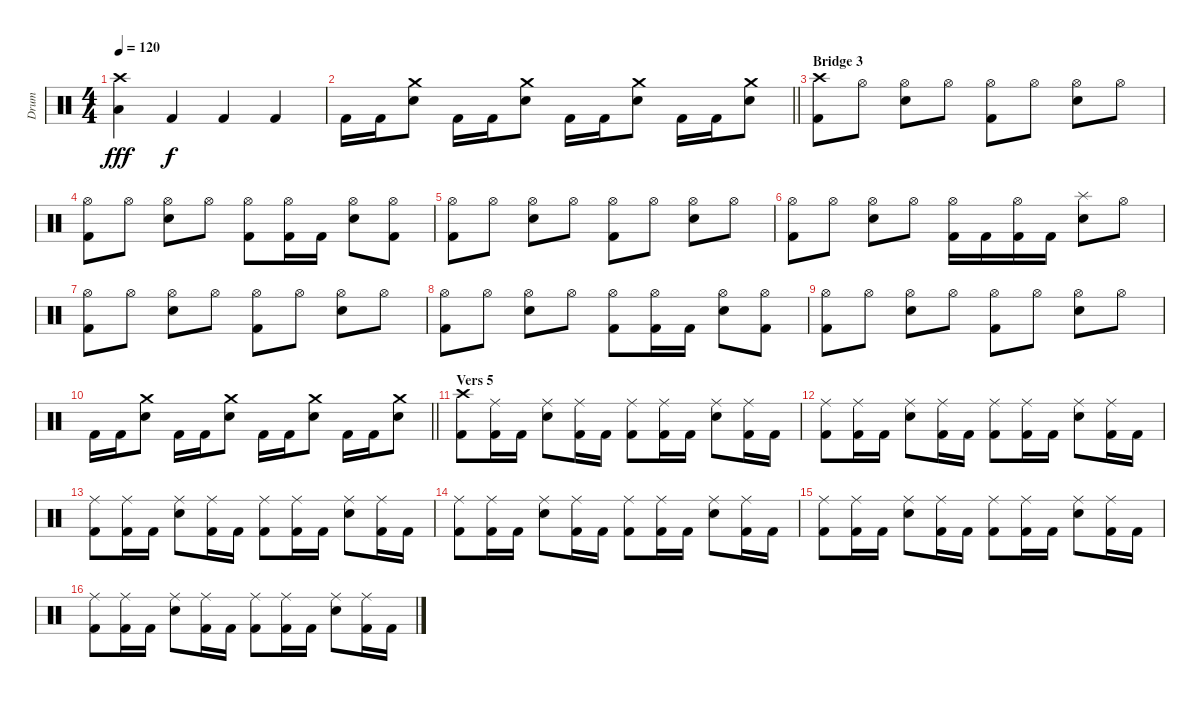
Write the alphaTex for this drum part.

\track ("Drum" "Drum") {instrument percussion}
\staff {score}
\articulation defaults
\ts (4 4)
\tempo 120
\clef neutral
\ks c
("Crash high (hit)" "Low Floor Tom (hit)").4{dy fff} "Kick (hit) 2".4{dy f} "Kick (hit) 2".4 "Kick (hit) 2".4 |
\barLineRight lightlight "Kick (hit) 2".16 "Kick (hit) 2".16
("Crash medium (hit)" "Electric Snare (hit)").8 "Kick (hit) 2".16 "Kick (hit) 2".16 ("Crash medium (hit)" "Electric Snare (hit)").8 "Kick (hit) 2".16 "Kick (hit) 2".16 ("Crash medium (hit)" "Electric Snare (hit)").8 "Kick (hit) 2".16 "Kick (hit) 2".16 ("Crash medium (hit)" "Electric Snare (hit)").8 |
\section ("" "Bridge 3")
("Crash high (hit)" "Kick (hit) 2").8 "Hi-Hat (open)".8 ("Hi-Hat (open)" "Electric Snare (hit)").8 "Hi-Hat (open)".8 ("Hi-Hat (open)" "Kick (hit) 2").8 "Hi-Hat (open)".8 ("Hi-Hat (open)" "Electric Snare (hit)").8 "Hi-Hat (open)".8 |
("Hi-Hat (open)" "Kick (hit) 2").8 "Hi-Hat (open)".8 ("Hi-Hat (open)" "Electric Snare (hit)").8 "Hi-Hat (open)".8 ("Hi-Hat (open)" "Kick (hit) 2").8 ("Hi-Hat (open)" "Kick (hit) 2").16 "Kick (hit) 2".16 ("Hi-Hat (open)" "Electric Snare (hit)").8 ("Hi-Hat (open)" "Kick (hit) 2").8 |
("Hi-Hat (open)" "Kick (hit) 2").8 "Hi-Hat (open)".8 ("Hi-Hat (open)" "Electric Snare (hit)").8 "Hi-Hat (open)".8 ("Hi-Hat (open)" "Kick (hit) 2").8 "Hi-Hat (open)".8 ("Hi-Hat (open)" "Electric Snare (hit)").8 "Hi-Hat (open)".8 |
("Hi-Hat (open)" "Kick (hit) 2").8 "Hi-Hat (open)".8 ("Hi-Hat (open)" "Electric Snare (hit)").8 "Hi-Hat (open)".8 ("Hi-Hat (open)" "Kick (hit) 2").16 "Kick (hit) 2".16 ("Hi-Hat (open)" "Kick (hit) 2").16 "Kick (hit) 2".16 ("Splash (hit)" "Electric Snare (hit)").8 "Hi-Hat (open)".8 |
("Hi-Hat (open)" "Kick (hit) 2").8 "Hi-Hat (open)".8 ("Hi-Hat (open)" "Electric Snare (hit)").8 "Hi-Hat (open)".8 ("Hi-Hat (open)" "Kick (hit) 2").8 "Hi-Hat (open)".8 ("Hi-Hat (open)" "Electric Snare (hit)").8 "Hi-Hat (open)".8 |
("Hi-Hat (open)" "Kick (hit) 2").8 "Hi-Hat (open)".8 ("Hi-Hat (open)" "Electric Snare (hit)").8 "Hi-Hat (open)".8 ("Hi-Hat (open)" "Kick (hit) 2").8 ("Hi-Hat (open)" "Kick (hit) 2").16 "Kick (hit) 2".16 ("Hi-Hat (open)" "Electric Snare (hit)").8 ("Hi-Hat (open)" "Kick (hit) 2").8 |
("Hi-Hat (open)" "Kick (hit) 2").8 "Hi-Hat (open)".8 ("Hi-Hat (open)" "Electric Snare (hit)").8 "Hi-Hat (open)".8 ("Hi-Hat (open)" "Kick (hit) 2").8 "Hi-Hat (open)".8 ("Hi-Hat (open)" "Electric Snare (hit)").8 "Hi-Hat (open)".8 |
\barLineRight lightlight "Kick (hit) 2".16 "Kick (hit) 2".16
("Crash medium (hit)" "Electric Snare (hit)").8 "Kick (hit) 2".16 "Kick (hit) 2".16 ("Crash medium (hit)" "Electric Snare (hit)").8 "Kick (hit) 2".16 "Kick (hit) 2".16 ("Crash medium (hit)" "Electric Snare (hit)").8 "Kick (hit) 2".16 "Kick (hit) 2".16 ("Crash medium (hit)" "Electric Snare (hit)").8 |
\section ("" "Vers 5")
("Crash high (hit)" "Kick (hit) 2").8 ("Ride (middle)" "Kick (hit) 2").16 "Kick (hit) 2".16 ("Ride (middle)" "Electric Snare (hit)").8 ("Ride (middle)" "Kick (hit) 2").16 "Kick (hit) 2".16 ("Ride (middle)" "Kick (hit) 2").8 ("Ride (middle)" "Kick (hit) 2").16 "Kick (hit) 2".16 ("Ride (middle)" "Electric Snare (hit)").8 ("Ride (middle)" "Kick (hit) 2").16 "Kick (hit) 2".16 |
("Ride (middle)" "Kick (hit) 2").8 ("Ride (middle)" "Kick (hit) 2").16 "Kick (hit) 2".16 ("Ride (middle)" "Electric Snare (hit)").8 ("Ride (middle)" "Kick (hit) 2").16 "Kick (hit) 2".16 ("Ride (middle)" "Kick (hit) 2").8 ("Ride (middle)" "Kick (hit) 2").16 "Kick (hit) 2".16 ("Ride (middle)" "Electric Snare (hit)").8 ("Ride (middle)" "Kick (hit) 2").16 "Kick (hit) 2".16 |
("Ride (middle)" "Kick (hit) 2").8 ("Ride (middle)" "Kick (hit) 2").16 "Kick (hit) 2".16 ("Ride (middle)" "Electric Snare (hit)").8 ("Ride (middle)" "Kick (hit) 2").16 "Kick (hit) 2".16 ("Ride (middle)" "Kick (hit) 2").8 ("Ride (middle)" "Kick (hit) 2").16 "Kick (hit) 2".16 ("Ride (middle)" "Electric Snare (hit)").8 ("Ride (middle)" "Kick (hit) 2").16 "Kick (hit) 2".16 |
("Ride (middle)" "Kick (hit) 2").8 ("Ride (middle)" "Kick (hit) 2").16 "Kick (hit) 2".16 ("Ride (middle)" "Electric Snare (hit)").8 ("Ride (middle)" "Kick (hit) 2").16 "Kick (hit) 2".16 ("Ride (middle)" "Kick (hit) 2").8 ("Ride (middle)" "Kick (hit) 2").16 "Kick (hit) 2".16 ("Ride (middle)" "Electric Snare (hit)").8 ("Ride (middle)" "Kick (hit) 2").16 "Kick (hit) 2".16 |
("Ride (middle)" "Kick (hit) 2").8 ("Ride (middle)" "Kick (hit) 2").16 "Kick (hit) 2".16 ("Ride (middle)" "Electric Snare (hit)").8 ("Ride (middle)" "Kick (hit) 2").16 "Kick (hit) 2".16 ("Ride (middle)" "Kick (hit) 2").8 ("Ride (middle)" "Kick (hit) 2").16 "Kick (hit) 2".16 ("Ride (middle)" "Electric Snare (hit)").8 ("Ride (middle)" "Kick (hit) 2").16 "Kick (hit) 2".16 |
("Ride (middle)" "Kick (hit) 2").8 ("Ride (middle)" "Kick (hit) 2").16 "Kick (hit) 2".16 ("Ride (middle)" "Electric Snare (hit)").8 ("Ride (middle)" "Kick (hit) 2").16 "Kick (hit) 2".16 ("Ride (middle)" "Kick (hit) 2").8 ("Ride (middle)" "Kick (hit) 2").16 "Kick (hit) 2".16 ("Ride (middle)" "Electric Snare (hit)").8 ("Ride (middle)" "Kick (hit) 2").16 "Kick (hit) 2".16
